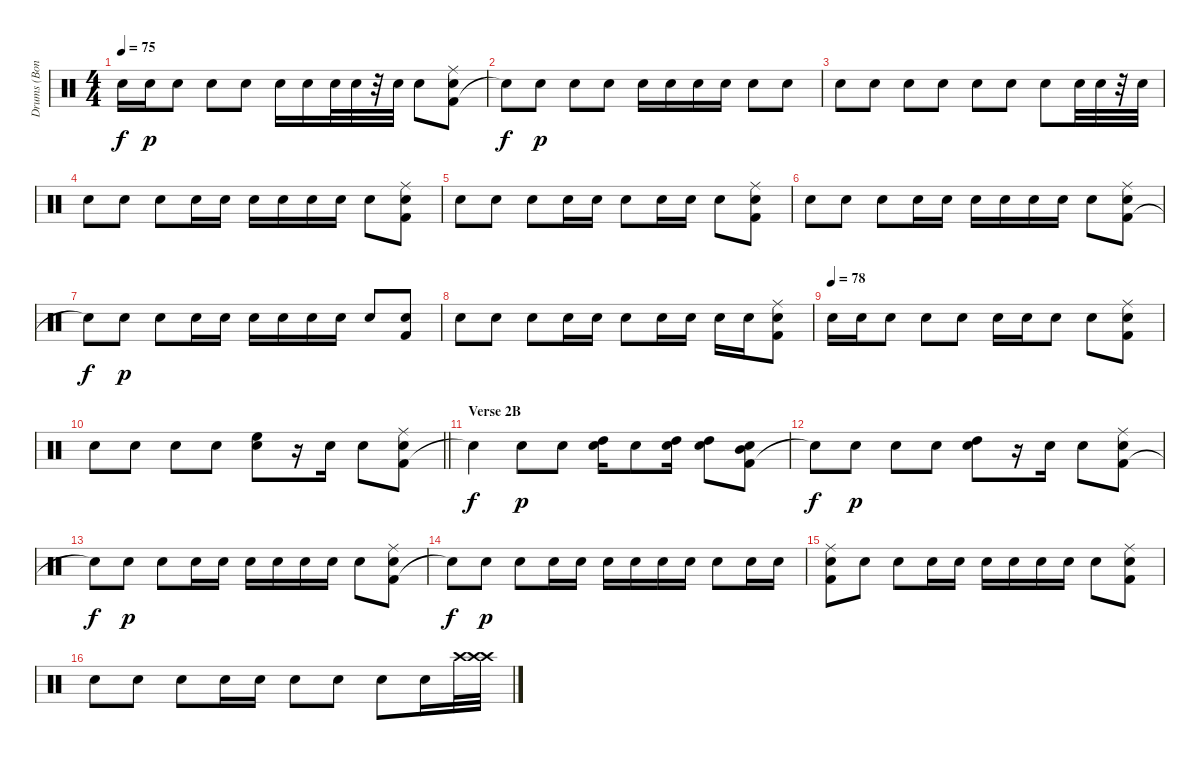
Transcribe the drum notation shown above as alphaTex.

\track ("Drums (Bonham)" "Drums (Bon") {instrument percussion}
\staff {score}
\articulation defaults
\ts (4 4)
\tempo 75
\clef neutral
\ks c "Snare (hit)"{t}.16{dy f} "Snare (hit) 2".16{dy p} "Snare (hit) 2".8 "Snare (hit) 2".8 "Snare (hit) 2".8 "Snare (hit) 2".16 "Snare (hit) 2".16 "Snare (hit) 2".32 "Snare (hit) 2".32
r.32 "Snare (hit) 2".32 "Snare (hit) 2".8 ("Kick (hit) 2" "Snare (hit) 2" "Ride (middle)").8 |
"Snare (hit)"{t}.8{dy f} "Snare (hit) 2".8{dy p} "Snare (hit) 2".8 "Snare (hit) 2".8 "Snare (hit) 2".16 "Snare (hit) 2".16 "Snare (hit) 2".16 "Snare (hit) 2".16 "Snare (hit) 2".8 "Snare (hit) 2".8 |
"Snare (hit) 2".8 "Snare (hit) 2".8 "Snare (hit) 2".8 "Snare (hit) 2".8 "Snare (hit) 2".8 "Snare (hit) 2".8 "Snare (hit) 2".8 "Snare (hit) 2".32 "Snare (hit) 2".32 r.32 "Snare (hit) 2".32 |
"Snare (hit) 2".8 "Snare (hit) 2".8 "Snare (hit) 2".8 "Snare (hit) 2".16 "Snare (hit) 2".16 "Snare (hit) 2".16 "Snare (hit) 2".16 "Snare (hit) 2".16 "Snare (hit) 2".16 "Snare (hit) 2".8 ("Kick (hit) 2" "Snare (hit) 2" "Ride (middle)").8 |
"Snare (hit) 2".8 "Snare (hit) 2".8 "Snare (hit) 2".8 "Snare (hit) 2".16 "Snare (hit) 2".16 "Snare (hit) 2".8 "Snare (hit) 2".16 "Snare (hit) 2".16 "Snare (hit) 2".8 ("Kick (hit) 2" "Snare (hit) 2" "Ride (middle)").8 |
"Snare (hit) 2".8 "Snare (hit) 2".8 "Snare (hit) 2".8 "Snare (hit) 2".16 "Snare (hit) 2".16 "Snare (hit) 2".16 "Snare (hit) 2".16 "Snare (hit) 2".16 "Snare (hit) 2".16 "Snare (hit) 2".8 ("Kick (hit) 2" "Snare (hit) 2" "Ride (middle)").8 |
"Snare (hit)"{t}.8{dy f} "Snare (hit) 2".8{dy p} "Snare (hit) 2".8 "Snare (hit) 2".16 "Snare (hit) 2".16 "Snare (hit) 2".16 "Snare (hit) 2".16 "Snare (hit) 2".16 "Snare (hit) 2".16 "Snare (hit) 2".8 ("Kick (hit) 2" "Snare (hit) 2").8 |
"Snare (hit) 2".8 "Snare (hit) 2".8 "Snare (hit) 2".8 "Snare (hit) 2".16 "Snare (hit) 2".16 "Snare (hit) 2".8 "Snare (hit) 2".16 "Snare (hit) 2".16 "Snare (hit) 2".16 "Snare (hit) 2".16 ("Kick (hit) 2" "Snare (hit) 2" "Ride (middle)").8 |
\tempo (78)
"Snare (hit) 2".16 "Snare (hit) 2".16 "Snare (hit) 2".8 "Snare (hit) 2".8 "Snare (hit) 2".8 "Snare (hit) 2".16 "Snare (hit) 2".16 "Snare (hit) 2".8 "Snare (hit) 2".8 ("Kick (hit) 2" "Snare (hit) 2" "Ride (middle)").8 |
\barLineRight lightlight "Snare (hit) 2".8 "Snare (hit) 2".8 "Snare (hit) 2".8 "Snare (hit) 2".8
("Snare (hit) 2" "High Floor Tom (hit)").8 r.16 "Snare (hit) 2".16 "Snare (hit) 2".8 ("Kick (hit) 2" "Snare (hit) 2" "Ride (middle)").8 |
\section ("" "Verse 2B")
"Snare (hit)"{t}.4{dy f} "Snare (hit) 2".8{dy p} "Snare (hit) 2".8 ("Snare (hit) 2" "High Tom (hit)").16 "Snare (hit) 2".8 ("Snare (hit) 2" "High Tom (hit)").16 ("Snare (hit) 2" "High Tom (hit)").8 ("Kick (hit) 2" "Snare (hit) 2" "Mid Tom (hit)").8 |
"Snare (hit)"{t}.8{dy f} "Snare (hit) 2".8{dy p} "Snare (hit) 2".8 "Snare (hit) 2".8 ("Snare (hit) 2" "High Tom (hit)").8 r.16 "Snare (hit) 2".16 "Snare (hit) 2".8 ("Kick (hit) 2" "Snare (hit) 2" "Ride (middle)").8 |
"Snare (hit)"{t}.8{dy f} "Snare (hit) 2".8{dy p} "Snare (hit) 2".8 "Snare (hit) 2".16 "Snare (hit) 2".16 "Snare (hit) 2".16 "Snare (hit) 2".16 "Snare (hit) 2".16 "Snare (hit) 2".16 "Snare (hit) 2".8 ("Kick (hit) 2" "Snare (hit) 2" "Ride (middle)").8 |
"Snare (hit)"{t}.8{dy f} "Snare (hit) 2".8{dy p} "Snare (hit) 2".8 "Snare (hit) 2".16 "Snare (hit) 2".16 "Snare (hit) 2".16 "Snare (hit) 2".16 "Snare (hit) 2".16 "Snare (hit) 2".16 "Snare (hit) 2".8 "Snare (hit) 2".16 "Snare (hit) 2".16 |
("Kick (hit) 2" "Snare (hit) 2" "Ride (middle)").8 "Snare (hit) 2".8 "Snare (hit) 2".8 "Snare (hit) 2".16 "Snare (hit) 2".16 "Snare (hit) 2".16 "Snare (hit) 2".16 "Snare (hit) 2".16 "Snare (hit) 2".16 "Snare (hit) 2".8 ("Kick (hit) 2" "Snare (hit) 2" "Ride (middle)").8 |
"Snare (hit) 2".8 "Snare (hit) 2".8 "Snare (hit) 2".8 "Snare (hit) 2".16 "Snare (hit) 2".16 "Snare (hit) 2".8 "Snare (hit) 2".8 "Snare (hit) 2".8 "Snare (hit) 2".16 "Crash high (hit)".32 ("Crash high (hit)" "Crash high (hit)").32
